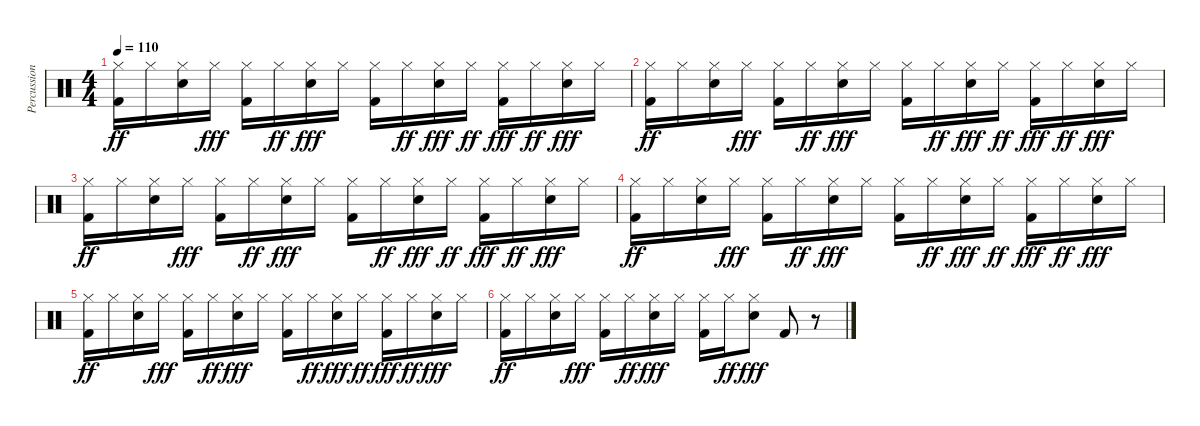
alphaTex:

\track ("Percussion" "Percussion") {instrument percussion}
\staff {score}
\articulation defaults
\ts (4 4)
\tempo 110
\clef neutral
\ks c
("Kick (hit) 2" "Hi-Hat (closed)").16{dy ff} "Hi-Hat (closed)".16 ("Electric Snare (hit)" "Hi-Hat (closed)").16 "Hi-Hat (closed)".16{dy fff} ("Kick (hit) 2" "Hi-Hat (closed)").16 "Hi-Hat (closed)".16{dy ff} ("Electric Snare (hit)" "Hi-Hat (closed)").16{dy fff} "Hi-Hat (closed)".16 ("Kick (hit) 2" "Hi-Hat (closed)").16 "Hi-Hat (closed)".16{dy ff} ("Electric Snare (hit)" "Hi-Hat (closed)").16{dy fff} "Hi-Hat (closed)".16{dy ff} ("Kick (hit) 2" "Hi-Hat (closed)").16{dy fff} "Hi-Hat (closed)".16{dy ff} ("Electric Snare (hit)" "Hi-Hat (closed)").16{dy fff} "Hi-Hat (closed)".16 |
("Kick (hit) 2" "Hi-Hat (closed)").16{dy ff} "Hi-Hat (closed)".16 ("Electric Snare (hit)" "Hi-Hat (closed)").16 "Hi-Hat (closed)".16{dy fff} ("Kick (hit) 2" "Hi-Hat (closed)").16 "Hi-Hat (closed)".16{dy ff} ("Electric Snare (hit)" "Hi-Hat (closed)").16{dy fff} "Hi-Hat (closed)".16 ("Kick (hit) 2" "Hi-Hat (closed)").16 "Hi-Hat (closed)".16{dy ff} ("Electric Snare (hit)" "Hi-Hat (closed)").16{dy fff} "Hi-Hat (closed)".16{dy ff} ("Kick (hit) 2" "Hi-Hat (closed)").16{dy fff} "Hi-Hat (closed)".16{dy ff} ("Electric Snare (hit)" "Hi-Hat (closed)").16{dy fff} "Hi-Hat (closed)".16 |
("Kick (hit) 2" "Hi-Hat (closed)").16{dy ff} "Hi-Hat (closed)".16 ("Electric Snare (hit)" "Hi-Hat (closed)").16 "Hi-Hat (closed)".16{dy fff} ("Kick (hit) 2" "Hi-Hat (closed)").16 "Hi-Hat (closed)".16{dy ff} ("Electric Snare (hit)" "Hi-Hat (closed)").16{dy fff} "Hi-Hat (closed)".16 ("Kick (hit) 2" "Hi-Hat (closed)").16 "Hi-Hat (closed)".16{dy ff} ("Electric Snare (hit)" "Hi-Hat (closed)").16{dy fff} "Hi-Hat (closed)".16{dy ff} ("Kick (hit) 2" "Hi-Hat (closed)").16{dy fff} "Hi-Hat (closed)".16{dy ff} ("Electric Snare (hit)" "Hi-Hat (closed)").16{dy fff} "Hi-Hat (closed)".16 |
("Kick (hit) 2" "Hi-Hat (closed)").16{dy ff} "Hi-Hat (closed)".16 ("Electric Snare (hit)" "Hi-Hat (closed)").16 "Hi-Hat (closed)".16{dy fff} ("Kick (hit) 2" "Hi-Hat (closed)").16 "Hi-Hat (closed)".16{dy ff} ("Electric Snare (hit)" "Hi-Hat (closed)").16{dy fff} "Hi-Hat (closed)".16 ("Kick (hit) 2" "Hi-Hat (closed)").16 "Hi-Hat (closed)".16{dy ff} ("Electric Snare (hit)" "Hi-Hat (closed)").16{dy fff} "Hi-Hat (closed)".16{dy ff} ("Kick (hit) 2" "Hi-Hat (closed)").16{dy fff} "Hi-Hat (closed)".16{dy ff} ("Electric Snare (hit)" "Hi-Hat (closed)").16{dy fff} "Hi-Hat (closed)".16 |
("Kick (hit) 2" "Hi-Hat (closed)").16{dy ff} "Hi-Hat (closed)".16 ("Electric Snare (hit)" "Hi-Hat (closed)").16 "Hi-Hat (closed)".16{dy fff} ("Kick (hit) 2" "Hi-Hat (closed)").16 "Hi-Hat (closed)".16{dy ff} ("Electric Snare (hit)" "Hi-Hat (closed)").16{dy fff} "Hi-Hat (closed)".16 ("Kick (hit) 2" "Hi-Hat (closed)").16 "Hi-Hat (closed)".16{dy ff} ("Electric Snare (hit)" "Hi-Hat (closed)").16{dy fff} "Hi-Hat (closed)".16{dy ff} ("Kick (hit) 2" "Hi-Hat (closed)").16{dy fff} "Hi-Hat (closed)".16{dy ff} ("Electric Snare (hit)" "Hi-Hat (closed)").16{dy fff} "Hi-Hat (closed)".16 |
("Kick (hit) 2" "Hi-Hat (closed)").16{dy ff} "Hi-Hat (closed)".16 ("Electric Snare (hit)" "Hi-Hat (closed)").16 "Hi-Hat (closed)".16{dy fff} ("Kick (hit) 2" "Hi-Hat (closed)").16 "Hi-Hat (closed)".16{dy ff} ("Electric Snare (hit)" "Hi-Hat (closed)").16{dy fff} "Hi-Hat (closed)".16 ("Kick (hit) 2" "Hi-Hat (closed)").16 "Hi-Hat (closed)".16{dy ff} ("Electric Snare (hit)" "Hi-Hat (closed)").8{dy fff} "Kick (hit) 2".8 r.8
